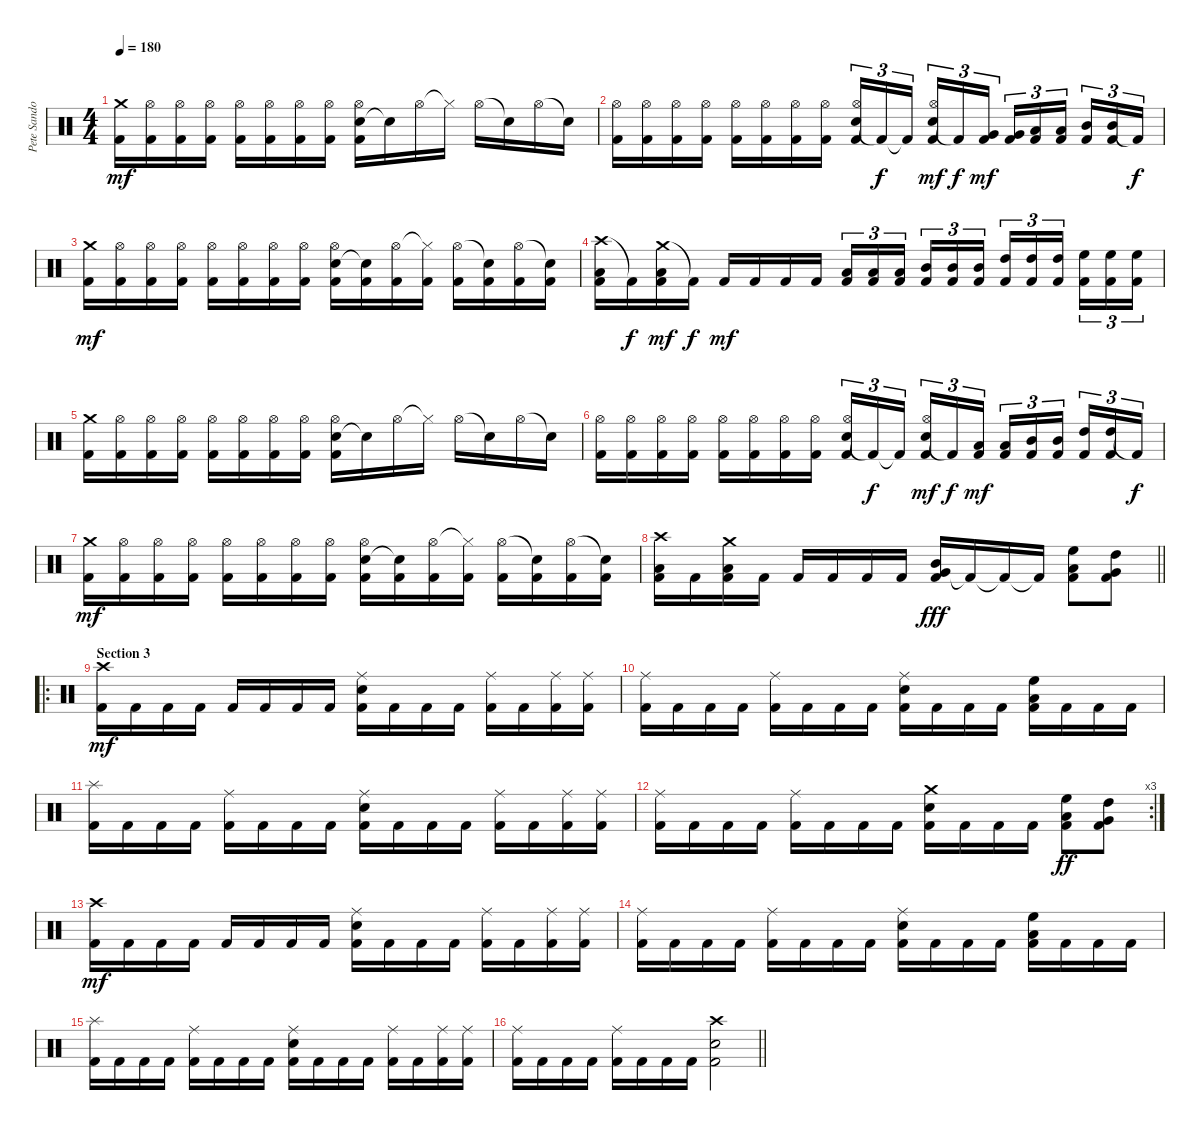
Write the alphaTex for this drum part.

\track ("Pete Sandoval" "Pete Sando") {instrument percussion}
\staff {score}
\articulation defaults
\ts (4 4)
\tempo 180
\clef neutral
\ks c
("Crash medium (hit)" "Kick (hit) 2").16{dy mf} ("Hi-Hat (open)" "Kick (hit) 2").16 ("Hi-Hat (open)" "Kick (hit) 2").16 ("Hi-Hat (open)" "Kick (hit) 2").16 ("Hi-Hat (open)" "Kick (hit) 2").16 ("Hi-Hat (open)" "Kick (hit) 2").16 ("Hi-Hat (open)" "Kick (hit) 2").16 ("Hi-Hat (open)" "Kick (hit) 2").16 ("Snare (hit) 2" "Hi-Hat (open)" "Kick (hit) 2").16 "Snare (hit)"{t}.16 "Hi-Hat (open)".16 "Hi-Hat (closed)"{t}.16 "Hi-Hat (open)".16 "Snare (hit)"{t}.16 "Hi-Hat (open)".16 "Snare (hit)"{t}.16 |
("Hi-Hat (open)" "Kick (hit) 2").16 ("Hi-Hat (open)" "Kick (hit) 2").16 ("Hi-Hat (open)" "Kick (hit) 2").16 ("Hi-Hat (open)" "Kick (hit) 2").16 ("Hi-Hat (open)" "Kick (hit) 2").16 ("Hi-Hat (open)" "Kick (hit) 2").16 ("Hi-Hat (open)" "Kick (hit) 2").16 ("Hi-Hat (open)" "Kick (hit) 2").16 ("Snare (hit) 2" "Hi-Hat (open)" "Kick (hit) 2").16{tu (3 2)} "Kick (hit) 2"{t}.16{tu (3 2) dy f} "Kick (hit) 2"{t}.16{tu (3 2) beam splitsecondary} ("Snare (hit) 2" "Hi-Hat (open)" "Kick (hit) 2").16{tu (3 2) dy mf} "Kick (hit) 2"{t}.16{tu (3 2) dy f} ("Very Low Tom (hit)" "Kick (hit) 2").16{tu (3 2) dy mf} ("Very Low Tom (hit)" "Kick (hit) 2").16{tu (3 2)} ("Low Tom (hit)" "Kick (hit) 2").16{tu (3 2)} ("Low Tom (hit)" "Kick (hit) 2").16{tu (3 2) beam splitsecondary} ("Mid Tom (hit)" "Kick (hit) 2").16{tu (3 2)} ("Mid Tom (hit)" "Kick (hit) 2").16{tu (3 2)} "Kick (hit) 2"{t}.16{tu (3 2) dy f} |
("Crash medium (hit)" "Kick (hit) 2").16{dy mf} ("Hi-Hat (open)" "Kick (hit) 2").16 ("Hi-Hat (open)" "Kick (hit) 2").16 ("Hi-Hat (open)" "Kick (hit) 2").16 ("Hi-Hat (open)" "Kick (hit) 2").16 ("Hi-Hat (open)" "Kick (hit) 2").16 ("Hi-Hat (open)" "Kick (hit) 2").16 ("Hi-Hat (open)" "Kick (hit) 2").16 ("Snare (hit) 2" "Hi-Hat (open)" "Kick (hit) 2").16 ("Snare (hit)"{t} "Kick (hit) 2").16 ("Hi-Hat (open)" "Kick (hit) 2").16 ("Hi-Hat (closed)"{t} "Kick (hit) 2").16 ("Hi-Hat (open)" "Kick (hit) 2").16 ("Snare (hit)"{t} "Kick (hit) 2").16 ("Hi-Hat (open)" "Kick (hit) 2").16 ("Snare (hit)"{t} "Kick (hit) 2").16 |
("Crash high (hit)" "Low Tom (hit)" "Kick (hit) 2").16 "Kick (hit) 2"{t}.16{dy f} ("Crash medium (hit)" "Low Tom (hit)" "Kick (hit) 2").16{dy mf} "Kick (hit) 2"{t}.16{dy f} "Kick (hit) 2".16{dy mf} "Kick (hit) 2".16 "Kick (hit) 2".16 "Kick (hit) 2".16 ("Low Tom (hit)" "Kick (hit) 2").16{tu (3 2)} ("Low Tom (hit)" "Kick (hit) 2").16{tu (3 2)} ("Low Tom (hit)" "Kick (hit) 2").16{tu (3 2) beam splitsecondary} ("Mid Tom (hit)" "Kick (hit) 2").16{tu (3 2)} ("Mid Tom (hit)" "Kick (hit) 2").16{tu (3 2)} ("Mid Tom (hit)" "Kick (hit) 2").16{tu (3 2)} ("High Tom (hit)" "Kick (hit) 2").16{tu (3 2)} ("High Tom (hit)" "Kick (hit) 2").16{tu (3 2)} ("High Tom (hit)" "Kick (hit) 2").16{tu (3 2) beam splitsecondary} ("High Floor Tom (hit)" "Kick (hit) 2").16{tu (3 2)} ("High Floor Tom (hit)" "Kick (hit) 2").16{tu (3 2)} ("High Floor Tom (hit)" "Kick (hit) 2").16{tu (3 2)} |
("Crash medium (hit)" "Kick (hit) 2").16 ("Hi-Hat (open)" "Kick (hit) 2").16 ("Hi-Hat (open)" "Kick (hit) 2").16 ("Hi-Hat (open)" "Kick (hit) 2").16 ("Hi-Hat (open)" "Kick (hit) 2").16 ("Hi-Hat (open)" "Kick (hit) 2").16 ("Hi-Hat (open)" "Kick (hit) 2").16 ("Hi-Hat (open)" "Kick (hit) 2").16 ("Snare (hit) 2" "Hi-Hat (open)" "Kick (hit) 2").16 "Snare (hit)"{t}.16 "Hi-Hat (open)".16 "Hi-Hat (closed)"{t}.16 "Hi-Hat (open)".16 "Snare (hit)"{t}.16 "Hi-Hat (open)".16 "Snare (hit)"{t}.16 |
("Hi-Hat (open)" "Kick (hit) 2").16 ("Hi-Hat (open)" "Kick (hit) 2").16 ("Hi-Hat (open)" "Kick (hit) 2").16 ("Hi-Hat (open)" "Kick (hit) 2").16 ("Hi-Hat (open)" "Kick (hit) 2").16 ("Hi-Hat (open)" "Kick (hit) 2").16 ("Hi-Hat (open)" "Kick (hit) 2").16 ("Hi-Hat (open)" "Kick (hit) 2").16 ("Snare (hit) 2" "Hi-Hat (open)" "Kick (hit) 2").16{tu (3 2)} "Kick (hit) 2"{t}.16{tu (3 2) dy f} "Kick (hit) 2"{t}.16{tu (3 2) beam splitsecondary} ("Snare (hit) 2" "Hi-Hat (open)" "Kick (hit) 2").16{tu (3 2) dy mf} "Kick (hit) 2"{t}.16{tu (3 2) dy f} ("Low Tom (hit)" "Kick (hit) 2").16{tu (3 2) dy mf} ("Low Tom (hit)" "Kick (hit) 2").16{tu (3 2)} ("Mid Tom (hit)" "Kick (hit) 2").16{tu (3 2)} ("Mid Tom (hit)" "Kick (hit) 2").16{tu (3 2) beam splitsecondary} ("High Tom (hit)" "Kick (hit) 2").16{tu (3 2)} ("High Tom (hit)" "Kick (hit) 2").16{tu (3 2)} "Kick (hit) 2"{t}.16{tu (3 2) dy f} |
("Crash medium (hit)" "Kick (hit) 2").16{dy mf} ("Hi-Hat (open)" "Kick (hit) 2").16 ("Hi-Hat (open)" "Kick (hit) 2").16 ("Hi-Hat (open)" "Kick (hit) 2").16 ("Hi-Hat (open)" "Kick (hit) 2").16 ("Hi-Hat (open)" "Kick (hit) 2").16 ("Hi-Hat (open)" "Kick (hit) 2").16 ("Hi-Hat (open)" "Kick (hit) 2").16 ("Snare (hit) 2" "Hi-Hat (open)" "Kick (hit) 2").16 ("Snare (hit)"{t} "Kick (hit) 2").16 ("Hi-Hat (open)" "Kick (hit) 2").16 ("Hi-Hat (closed)"{t} "Kick (hit) 2").16 ("Hi-Hat (open)" "Kick (hit) 2").16 ("Snare (hit)"{t} "Kick (hit) 2").16 ("Hi-Hat (open)" "Kick (hit) 2").16 ("Snare (hit)"{t} "Kick (hit) 2").16 |
\barLineRight lightlight
("Crash high (hit)" "Low Tom (hit)" "Kick (hit) 2").16 "Kick (hit) 2".16 ("Crash medium (hit)" "Low Tom (hit)" "Kick (hit) 2").16 "Kick (hit) 2".16 "Kick (hit) 2".16 "Kick (hit) 2".16 "Kick (hit) 2".16 "Kick (hit) 2".16 ("Very Low Tom (hit)" "Mid Tom (hit)" "Kick (hit) 2").16{dy fff} "Kick (hit) 2"{t}.16 "Kick (hit) 2"{t}.16 "Kick (hit) 2"{t}.16 ("High Floor Tom (hit)" "Low Tom (hit)" "Kick (hit) 2").8 ("High Tom (hit)" "Very Low Tom (hit)" "Kick (hit) 2").8 |
\ro
\section ("" "Section 3")
("Crash high (hit)" "Kick (hit) 2").16{dy mf} "Kick (hit) 2".16 "Kick (hit) 2".16 "Kick (hit) 2".16 "Kick (hit) 2".16 "Kick (hit) 2".16 "Kick (hit) 2".16 "Kick (hit) 2".16 ("Snare (hit) 2" "Ride (middle)" "Kick (hit) 2").16 "Kick (hit) 2".16 "Kick (hit) 2".16 "Kick (hit) 2".16 ("Ride (middle)" "Kick (hit) 2").16 "Kick (hit) 2".16 ("Ride (middle)" "Kick (hit) 2").16 ("Ride (middle)" "Kick (hit) 2").16 |
("Ride (middle)" "Kick (hit) 2").16 "Kick (hit) 2".16 "Kick (hit) 2".16 "Kick (hit) 2".16 ("Ride (middle)" "Kick (hit) 2").16 "Kick (hit) 2".16 "Kick (hit) 2".16 "Kick (hit) 2".16 ("Snare (hit) 2" "Ride (middle)" "Kick (hit) 2").16 "Kick (hit) 2".16 "Kick (hit) 2".16 "Kick (hit) 2".16 ("High Floor Tom (hit)" "Low Tom (hit)" "Kick (hit) 2").16 "Kick (hit) 2".16 "Kick (hit) 2".16 "Kick (hit) 2".16 |
("Splash (hit)" "Kick (hit) 2").16 "Kick (hit) 2".16 "Kick (hit) 2".16 "Kick (hit) 2".16 ("Ride (middle)" "Kick (hit) 2").16 "Kick (hit) 2".16 "Kick (hit) 2".16 "Kick (hit) 2".16 ("Snare (hit) 2" "Ride (middle)" "Kick (hit) 2").16 "Kick (hit) 2".16 "Kick (hit) 2".16 "Kick (hit) 2".16 ("Ride (middle)" "Kick (hit) 2").16 "Kick (hit) 2".16 ("Ride (middle)" "Kick (hit) 2").16 ("Ride (middle)" "Kick (hit) 2").16 |
\rc 3
("Ride (middle)" "Kick (hit) 2").16 "Kick (hit) 2".16 "Kick (hit) 2".16 "Kick (hit) 2".16 ("Ride (middle)" "Kick (hit) 2").16 "Kick (hit) 2".16 "Kick (hit) 2".16 "Kick (hit) 2".16 ("Snare (hit) 2" "Crash medium (hit)" "Kick (hit) 2").16 "Kick (hit) 2".16 "Kick (hit) 2".16 "Kick (hit) 2".16 ("High Floor Tom (hit)" "Low Tom (hit)" "Kick (hit) 2").8{dy ff} ("High Tom (hit)" "Very Low Tom (hit)" "Kick (hit) 2").8 |
("Crash high (hit)" "Kick (hit) 2").16{dy mf} "Kick (hit) 2".16 "Kick (hit) 2".16 "Kick (hit) 2".16 "Kick (hit) 2".16 "Kick (hit) 2".16 "Kick (hit) 2".16 "Kick (hit) 2".16 ("Snare (hit) 2" "Ride (middle)" "Kick (hit) 2").16 "Kick (hit) 2".16 "Kick (hit) 2".16 "Kick (hit) 2".16 ("Ride (middle)" "Kick (hit) 2").16 "Kick (hit) 2".16 ("Ride (middle)" "Kick (hit) 2").16 ("Ride (middle)" "Kick (hit) 2").16 |
("Ride (middle)" "Kick (hit) 2").16 "Kick (hit) 2".16 "Kick (hit) 2".16 "Kick (hit) 2".16 ("Ride (middle)" "Kick (hit) 2").16 "Kick (hit) 2".16 "Kick (hit) 2".16 "Kick (hit) 2".16 ("Snare (hit) 2" "Ride (middle)" "Kick (hit) 2").16 "Kick (hit) 2".16 "Kick (hit) 2".16 "Kick (hit) 2".16 ("High Floor Tom (hit)" "Low Tom (hit)" "Kick (hit) 2").16 "Kick (hit) 2".16 "Kick (hit) 2".16 "Kick (hit) 2".16 |
("Splash (hit)" "Kick (hit) 2").16 "Kick (hit) 2".16 "Kick (hit) 2".16 "Kick (hit) 2".16 ("Ride (middle)" "Kick (hit) 2").16 "Kick (hit) 2".16 "Kick (hit) 2".16 "Kick (hit) 2".16 ("Snare (hit) 2" "Ride (middle)" "Kick (hit) 2").16 "Kick (hit) 2".16 "Kick (hit) 2".16 "Kick (hit) 2".16 ("Ride (middle)" "Kick (hit) 2").16 "Kick (hit) 2".16 ("Ride (middle)" "Kick (hit) 2").16 ("Ride (middle)" "Kick (hit) 2").16 |
\barLineRight lightlight
("Ride (middle)" "Kick (hit) 2").16 "Kick (hit) 2".16 "Kick (hit) 2".16 "Kick (hit) 2".16 ("Ride (middle)" "Kick (hit) 2").16 "Kick (hit) 2".16 "Kick (hit) 2".16 "Kick (hit) 2".16 ("Snare (hit) 2" "Crash high (hit)" "Kick (hit) 2").2
